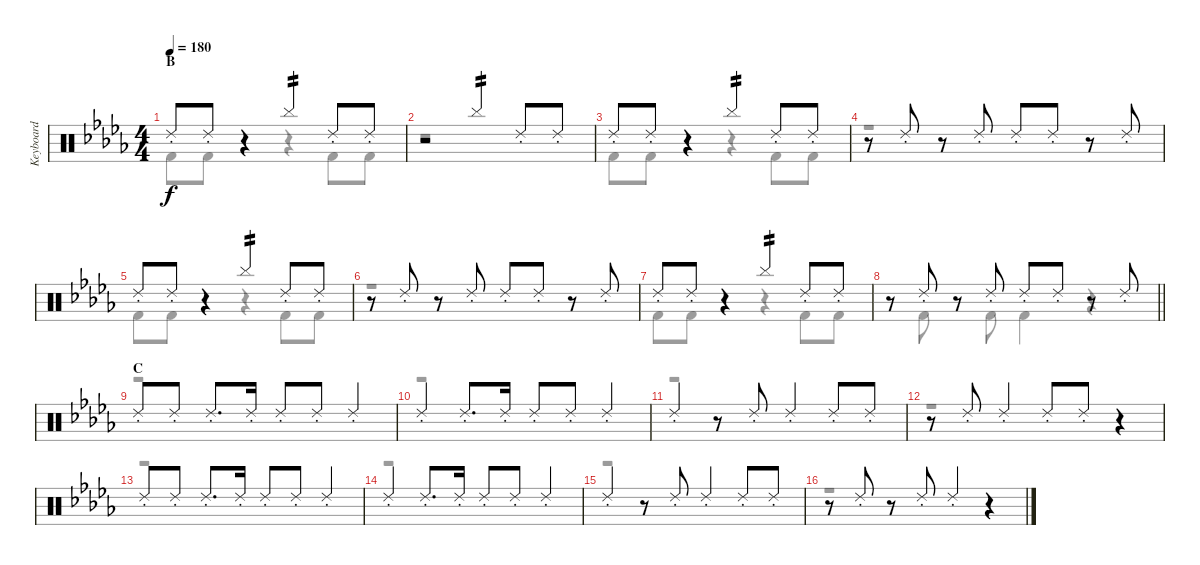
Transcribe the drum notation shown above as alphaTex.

\track ("Keyboard" "Keyboard") {instrument percussion}
\staff {score}
\articulation defaults
\voice
\ts (4 4)
\section ("" "B")
\tempo 180
\clef neutral
\ks db "Ride (choke) 2".8{dy f} "Ride (choke) 2".8
r.4 "Cymbal (hit)".4{tp 2} "Ride (choke) 2".8 "Ride (choke) 2".8 |
r.2 "Cymbal (hit)".4{tp 2} "Ride (choke) 2".8 "Ride (choke) 2".8 |
"Ride (choke) 2".8 "Ride (choke) 2".8 r.4 "Cymbal (hit)".4{tp 2} "Ride (choke) 2".8 "Ride (choke) 2".8 |
r.8 "Ride (choke) 2".8 r.8 "Ride (choke) 2".8 "Ride (choke) 2".8 "Ride (choke) 2".8 r.8 "Ride (choke) 2".8 |
"Ride (choke) 2".8 "Ride (choke) 2".8 r.4 "Cymbal (hit)".4{tp 2} "Ride (choke) 2".8 "Ride (choke) 2".8 |
r.8 "Ride (choke) 2".8 r.8 "Ride (choke) 2".8 "Ride (choke) 2".8 "Ride (choke) 2".8 r.8 "Ride (choke) 2".8 |
"Ride (choke) 2".8 "Ride (choke) 2".8 r.4 "Cymbal (hit)".4{tp 2} "Ride (choke) 2".8 "Ride (choke) 2".8 |
\barLineRight lightlight
r.8 "Ride (choke) 2".8 r.8 "Ride (choke) 2".8 "Ride (choke) 2".8 "Ride (choke) 2".8 r.8 "Ride (choke) 2".8 |
\section ("" "C")
"Ride (choke) 2".8 "Ride (choke) 2".8 "Ride (choke) 2".8{d} "Ride (choke) 2".16 "Ride (choke) 2".8 "Ride (choke) 2".8 "Ride (choke) 2".4 |
"Ride (choke) 2".4 "Ride (choke) 2".8{d} "Ride (choke) 2".16 "Ride (choke) 2".8 "Ride (choke) 2".8 "Ride (choke) 2".4 |
"Ride (choke) 2".4 r.8 "Ride (choke) 2".8 "Ride (choke) 2".4 "Ride (choke) 2".8 "Ride (choke) 2".8 |
r.8 "Ride (choke) 2".8 "Ride (choke) 2".4 "Ride (choke) 2".8 "Ride (choke) 2".8 r.4 |
"Ride (choke) 2".8 "Ride (choke) 2".8 "Ride (choke) 2".8{d} "Ride (choke) 2".16 "Ride (choke) 2".8 "Ride (choke) 2".8 "Ride (choke) 2".4 |
"Ride (choke) 2".4 "Ride (choke) 2".8{d} "Ride (choke) 2".16 "Ride (choke) 2".8 "Ride (choke) 2".8 "Ride (choke) 2".4 |
"Ride (choke) 2".4 r.8 "Ride (choke) 2".8 "Ride (choke) 2".4 "Ride (choke) 2".8 "Ride (choke) 2".8 |
r.8 "Ride (choke) 2".8 r.8 "Ride (choke) 2".8 "Ride (choke) 2".4 r.4
\voice
\clef neutral
\ottava regular
\simile none
\ks db "Kick (hit) 2".8{dy f} "Kick (hit) 2".8
r.4 r.4 "Kick (hit) 2".8 "Kick (hit) 2".8 |
r.1 |
"Kick (hit) 2".8 "Kick (hit) 2".8 r.4 r.4 "Kick (hit) 2".8 "Kick (hit) 2".8 |
r.1 |
"Kick (hit) 2".8 "Kick (hit) 2".8 r.4 r.4 "Kick (hit) 2".8 "Kick (hit) 2".8 |
r.1 |
"Kick (hit) 2".8 "Kick (hit) 2".8 r.4 r.4 "Kick (hit) 2".8 "Kick (hit) 2".8 |
\barLineRight lightlight
r.8 "Kick (hit) 2".8 r.8 "Kick (hit) 2".8 "Kick (hit) 2".4 r.4 |
r.1 |
r.1 |
r.1 |
r.1 |
r.1 |
r.1 |
r.1 |
r.1
